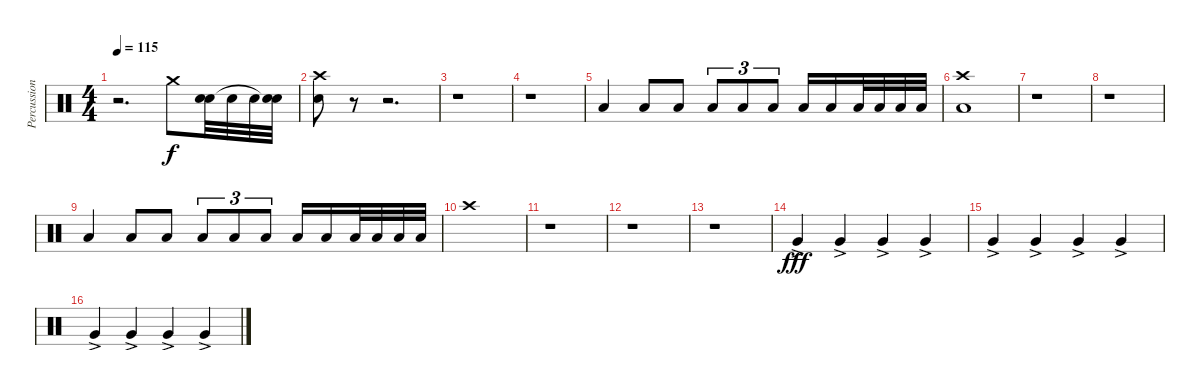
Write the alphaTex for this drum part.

\track ("Percussions" "Percussion") {instrument percussion}
\staff {score}
\articulation defaults
\ts (4 4)
\section ("" "")
\tempo 115
\clef neutral
\ks c
r.2{d dy f} "Crash medium (hit)".8 ("Electric Snare (hit)" "Snare (hit)").32 "Electric Snare (hit)".32 "Electric Snare (hit)".32 ("Electric Snare (hit)" "Snare (hit)"{t}).32 |
("Electric Snare (hit)" "Crash high (hit)").8 r.8 r.2{d} |
r.1 |
r.1 |
"Low Tom (hit)".4 "Low Tom (hit)".8 "Low Tom (hit)".8 "Low Tom (hit)".8{tu (3 2)} "Low Tom (hit)".8{tu (3 2)} "Low Tom (hit)".8{tu (3 2)} "Low Tom (hit)".16 "Low Tom (hit)".16 "Low Tom (hit)".32 "Low Tom (hit)".32 "Low Tom (hit)".32 "Low Tom (hit)".32 |
("Crash high (hit)" "Low Tom (hit)").1 |
r.1 |
r.1 |
"Low Tom (hit)".4 "Low Tom (hit)".8 "Low Tom (hit)".8 "Low Tom (hit)".8{tu (3 2)} "Low Tom (hit)".8{tu (3 2)} "Low Tom (hit)".8{tu (3 2)} "Low Tom (hit)".16 "Low Tom (hit)".16 "Low Tom (hit)".32 "Low Tom (hit)".32 "Low Tom (hit)".32 "Low Tom (hit)".32 |
"Crash high (hit)".1 |
r.1 |
r.1 |
r.1 |
\section ("" "")
"Very Low Tom (hit)"{ac}.4{dy fff} "Very Low Tom (hit)"{ac}.4 "Very Low Tom (hit)"{ac}.4 "Very Low Tom (hit)"{ac}.4 |
"Very Low Tom (hit)"{ac}.4 "Very Low Tom (hit)"{ac}.4 "Very Low Tom (hit)"{ac}.4 "Very Low Tom (hit)"{ac}.4 |
"Very Low Tom (hit)"{ac}.4 "Very Low Tom (hit)"{ac}.4 "Very Low Tom (hit)"{ac}.4 "Very Low Tom (hit)"{ac}.4
